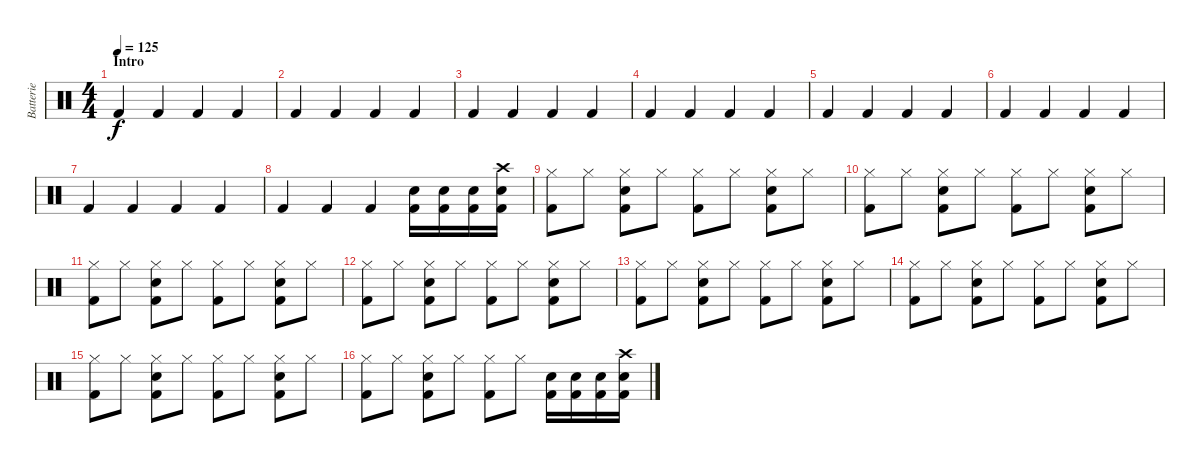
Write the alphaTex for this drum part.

\track ("Batterie" "Batterie") {instrument percussion}
\staff {score}
\articulation defaults
\ts (4 4)
\section ("" "Intro")
\tempo 125
\clef neutral
\ks c "Kick (hit) 2".4{dy f} "Kick (hit) 2".4 "Kick (hit) 2".4 "Kick (hit) 2".4
|
"Kick (hit) 2".4 "Kick (hit) 2".4 "Kick (hit) 2".4 "Kick (hit) 2".4 |
"Kick (hit) 2".4 "Kick (hit) 2".4 "Kick (hit) 2".4 "Kick (hit) 2".4 |
"Kick (hit) 2".4 "Kick (hit) 2".4 "Kick (hit) 2".4 "Kick (hit) 2".4 |
"Kick (hit) 2".4 "Kick (hit) 2".4 "Kick (hit) 2".4 "Kick (hit) 2".4 |
"Kick (hit) 2".4 "Kick (hit) 2".4 "Kick (hit) 2".4 "Kick (hit) 2".4 |
"Kick (hit) 2".4 "Kick (hit) 2".4 "Kick (hit) 2".4 "Kick (hit) 2".4 |
"Kick (hit) 2".4 "Kick (hit) 2".4 "Kick (hit) 2".4 ("Snare (hit) 2" "Kick (hit) 2").16 ("Snare (hit) 2" "Kick (hit) 2").16 ("Snare (hit) 2" "Kick (hit) 2").16 ("Crash high (hit)" "Snare (hit) 2" "Kick (hit) 2").16 |
("Hi-Hat (closed)" "Kick (hit) 2").8 "Hi-Hat (closed)".8 ("Hi-Hat (closed)" "Snare (hit) 2" "Kick (hit) 2").8 "Hi-Hat (closed)".8 ("Hi-Hat (closed)" "Kick (hit) 2").8 "Hi-Hat (closed)".8 ("Hi-Hat (closed)" "Snare (hit) 2" "Kick (hit) 2").8 "Hi-Hat (closed)".8 |
("Hi-Hat (closed)" "Kick (hit) 2").8 "Hi-Hat (closed)".8 ("Hi-Hat (closed)" "Snare (hit) 2" "Kick (hit) 2").8 "Hi-Hat (closed)".8 ("Hi-Hat (closed)" "Kick (hit) 2").8 "Hi-Hat (closed)".8 ("Hi-Hat (closed)" "Snare (hit) 2" "Kick (hit) 2").8 "Hi-Hat (closed)".8 |
("Hi-Hat (closed)" "Kick (hit) 2").8 "Hi-Hat (closed)".8 ("Hi-Hat (closed)" "Snare (hit) 2" "Kick (hit) 2").8 "Hi-Hat (closed)".8 ("Hi-Hat (closed)" "Kick (hit) 2").8 "Hi-Hat (closed)".8 ("Hi-Hat (closed)" "Snare (hit) 2" "Kick (hit) 2").8 "Hi-Hat (closed)".8 |
("Hi-Hat (closed)" "Kick (hit) 2").8 "Hi-Hat (closed)".8 ("Hi-Hat (closed)" "Snare (hit) 2" "Kick (hit) 2").8 "Hi-Hat (closed)".8 ("Hi-Hat (closed)" "Kick (hit) 2").8 "Hi-Hat (closed)".8 ("Hi-Hat (closed)" "Snare (hit) 2" "Kick (hit) 2").8 "Hi-Hat (closed)".8 |
("Hi-Hat (closed)" "Kick (hit) 2").8 "Hi-Hat (closed)".8 ("Hi-Hat (closed)" "Snare (hit) 2" "Kick (hit) 2").8 "Hi-Hat (closed)".8 ("Hi-Hat (closed)" "Kick (hit) 2").8 "Hi-Hat (closed)".8 ("Hi-Hat (closed)" "Snare (hit) 2" "Kick (hit) 2").8 "Hi-Hat (closed)".8 |
("Hi-Hat (closed)" "Kick (hit) 2").8 "Hi-Hat (closed)".8 ("Hi-Hat (closed)" "Snare (hit) 2" "Kick (hit) 2").8 "Hi-Hat (closed)".8 ("Hi-Hat (closed)" "Kick (hit) 2").8 "Hi-Hat (closed)".8 ("Hi-Hat (closed)" "Snare (hit) 2" "Kick (hit) 2").8 "Hi-Hat (closed)".8 |
("Hi-Hat (closed)" "Kick (hit) 2").8 "Hi-Hat (closed)".8 ("Hi-Hat (closed)" "Snare (hit) 2" "Kick (hit) 2").8 "Hi-Hat (closed)".8 ("Hi-Hat (closed)" "Kick (hit) 2").8 "Hi-Hat (closed)".8 ("Hi-Hat (closed)" "Snare (hit) 2" "Kick (hit) 2").8 "Hi-Hat (closed)".8 |
("Hi-Hat (closed)" "Kick (hit) 2").8 "Hi-Hat (closed)".8 ("Hi-Hat (closed)" "Snare (hit) 2" "Kick (hit) 2").8 "Hi-Hat (closed)".8 ("Hi-Hat (closed)" "Kick (hit) 2").8 "Hi-Hat (closed)".8 ("Snare (hit) 2" "Kick (hit) 2").16 ("Snare (hit) 2" "Kick (hit) 2").16 ("Snare (hit) 2" "Kick (hit) 2").16 ("Crash high (hit)" "Snare (hit) 2" "Kick (hit) 2").16
